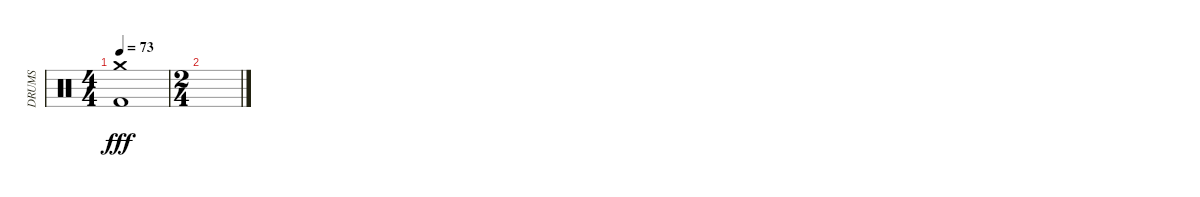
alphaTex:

\track ("DRUMS" "DRUMS") {instrument percussion}
\staff {score}
\articulation defaults
\ts (4 4)
\tempo 73
\clef neutral
\ks c
("Crash medium (hit)" "Kick (hit) 2").1{dy fff} |
\ts (2 4)
